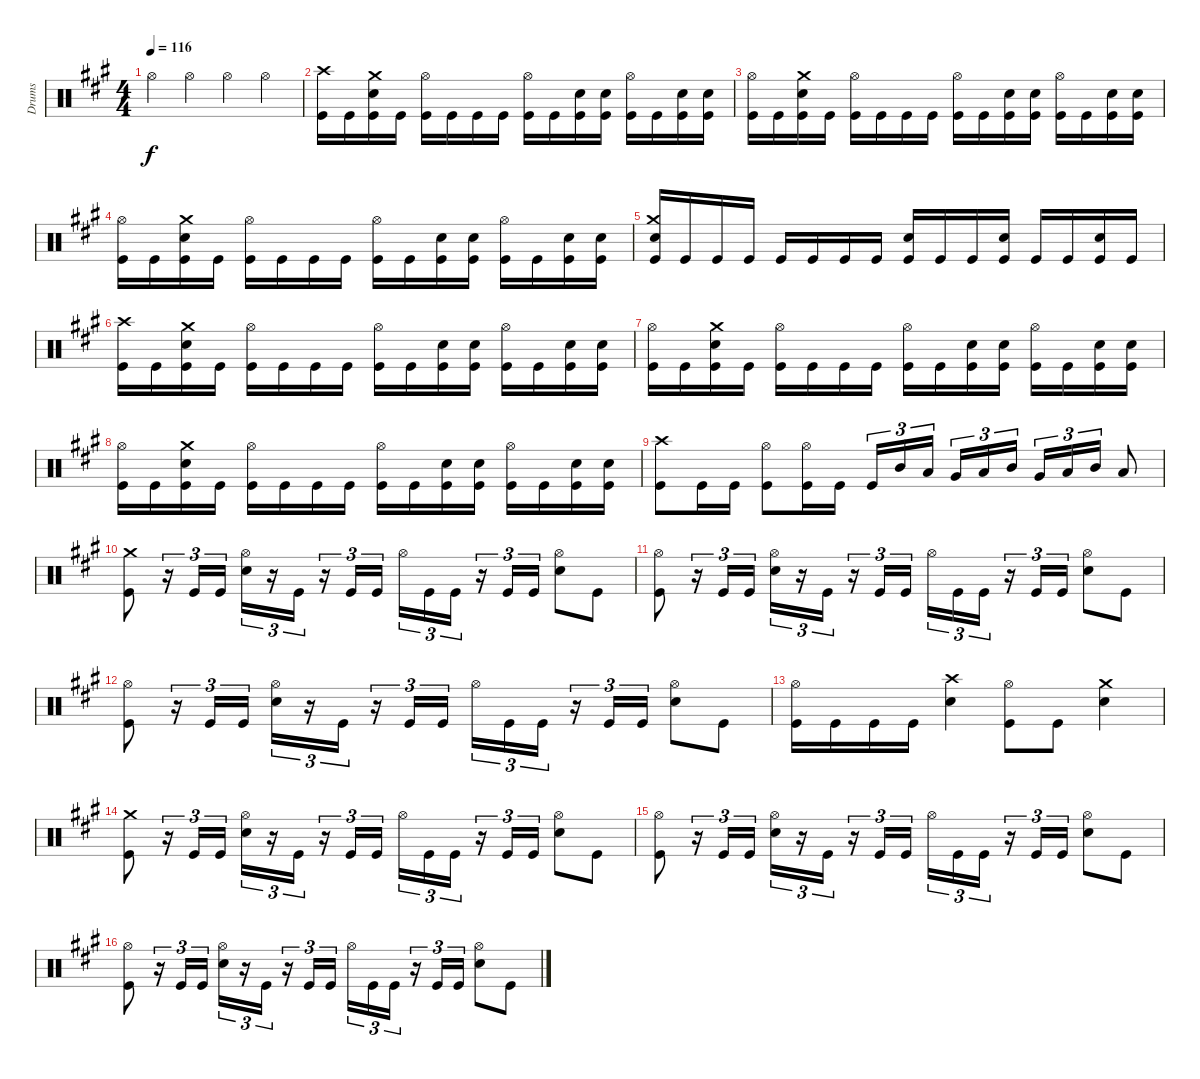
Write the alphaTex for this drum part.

\track ("Drums" "Drums") {instrument percussion}
\staff {score}
\articulation defaults
\ts (4 4)
\tempo 116
\clef neutral
\ks a "Hi-Hat (open)".4{dy f} "Hi-Hat (open)".4 "Hi-Hat (open)".4 "Hi-Hat (open)".4
|
("Crash high (hit)" "Kick (hit)").16 "Kick (hit)".16 ("Crash medium (hit)" "Snare (hit) 2" "Kick (hit)").16 "Kick (hit)".16 ("Hi-Hat (open)" "Kick (hit)").16 "Kick (hit)".16 "Kick (hit)".16 "Kick (hit)".16 ("Hi-Hat (open)" "Kick (hit)").16 "Kick (hit)".16 ("Snare (hit) 2" "Kick (hit)").16 ("Snare (hit) 2" "Kick (hit)").16 ("Hi-Hat (open)" "Kick (hit)").16 "Kick (hit)".16 ("Snare (hit) 2" "Kick (hit)").16 ("Snare (hit) 2" "Kick (hit)").16 |
("Hi-Hat (open)" "Kick (hit)").16 "Kick (hit)".16 ("Crash medium (hit)" "Snare (hit) 2" "Kick (hit)").16 "Kick (hit)".16 ("Hi-Hat (open)" "Kick (hit)").16 "Kick (hit)".16 "Kick (hit)".16 "Kick (hit)".16 ("Hi-Hat (open)" "Kick (hit)").16 "Kick (hit)".16 ("Snare (hit) 2" "Kick (hit)").16 ("Snare (hit) 2" "Kick (hit)").16 ("Hi-Hat (open)" "Kick (hit)").16 "Kick (hit)".16 ("Snare (hit) 2" "Kick (hit)").16 ("Snare (hit) 2" "Kick (hit)").16 |
("Hi-Hat (open)" "Kick (hit)").16 "Kick (hit)".16 ("Crash medium (hit)" "Snare (hit) 2" "Kick (hit)").16 "Kick (hit)".16 ("Hi-Hat (open)" "Kick (hit)").16 "Kick (hit)".16 "Kick (hit)".16 "Kick (hit)".16 ("Hi-Hat (open)" "Kick (hit)").16 "Kick (hit)".16 ("Snare (hit) 2" "Kick (hit)").16 ("Snare (hit) 2" "Kick (hit)").16 ("Hi-Hat (open)" "Kick (hit)").16 "Kick (hit)".16 ("Snare (hit) 2" "Kick (hit)").16 ("Snare (hit) 2" "Kick (hit)").16 |
("Crash medium (hit)" "Snare (hit) 2" "Kick (hit)").16 "Kick (hit)".16 "Kick (hit)".16 "Kick (hit)".16 "Kick (hit)".16 "Kick (hit)".16 "Kick (hit)".16 "Kick (hit)".16 ("Snare (hit) 2" "Kick (hit)").16 "Kick (hit)".16 "Kick (hit)".16 ("Snare (hit) 2" "Kick (hit)").16 "Kick (hit)".16 "Kick (hit)".16 ("Snare (hit) 2" "Kick (hit)").16 "Kick (hit)".16 |
("Crash high (hit)" "Kick (hit)").16 "Kick (hit)".16 ("Crash medium (hit)" "Snare (hit) 2" "Kick (hit)").16 "Kick (hit)".16 ("Hi-Hat (open)" "Kick (hit)").16 "Kick (hit)".16 "Kick (hit)".16 "Kick (hit)".16 ("Hi-Hat (open)" "Kick (hit)").16 "Kick (hit)".16 ("Snare (hit) 2" "Kick (hit)").16 ("Snare (hit) 2" "Kick (hit)").16 ("Hi-Hat (open)" "Kick (hit)").16 "Kick (hit)".16 ("Snare (hit) 2" "Kick (hit)").16 ("Snare (hit) 2" "Kick (hit)").16 |
("Hi-Hat (open)" "Kick (hit)").16 "Kick (hit)".16 ("Crash medium (hit)" "Snare (hit) 2" "Kick (hit)").16 "Kick (hit)".16 ("Hi-Hat (open)" "Kick (hit)").16 "Kick (hit)".16 "Kick (hit)".16 "Kick (hit)".16 ("Hi-Hat (open)" "Kick (hit)").16 "Kick (hit)".16 ("Snare (hit) 2" "Kick (hit)").16 ("Snare (hit) 2" "Kick (hit)").16 ("Hi-Hat (open)" "Kick (hit)").16 "Kick (hit)".16 ("Snare (hit) 2" "Kick (hit)").16 ("Snare (hit) 2" "Kick (hit)").16 |
("Hi-Hat (open)" "Kick (hit)").16 "Kick (hit)".16 ("Crash medium (hit)" "Snare (hit) 2" "Kick (hit)").16 "Kick (hit)".16 ("Hi-Hat (open)" "Kick (hit)").16 "Kick (hit)".16 "Kick (hit)".16 "Kick (hit)".16 ("Hi-Hat (open)" "Kick (hit)").16 "Kick (hit)".16 ("Snare (hit) 2" "Kick (hit)").16 ("Snare (hit) 2" "Kick (hit)").16 ("Hi-Hat (open)" "Kick (hit)").16 "Kick (hit)".16 ("Snare (hit) 2" "Kick (hit)").16 ("Snare (hit) 2" "Kick (hit)").16 |
("Crash high (hit)" "Kick (hit)").8 "Kick (hit)".16 "Kick (hit)".16 ("Hi-Hat (open)" "Kick (hit)").8 ("Hi-Hat (open)" "Kick (hit)").16 "Kick (hit)".16 "Kick (hit)".16{tu (3 2)} "Mid Tom (hit)".16{tu (3 2)} "Low Tom (hit)".16{tu (3 2) beam splitsecondary} "Very Low Tom (hit)".16{tu (3 2)} "Low Tom (hit)".16{tu (3 2)} "Mid Tom (hit)".16{tu (3 2)} "Very Low Tom (hit)".16{tu (3 2)} "Low Tom (hit)".16{tu (3 2)} "Mid Tom (hit)".16{tu (3 2)} "Low Tom (hit)".8 |
("Crash medium (hit)" "Kick (hit)").8 r.16{tu (3 2)} "Kick (hit)".16{tu (3 2)} "Kick (hit)".16{tu (3 2)} ("Hi-Hat (open)" "Snare (hit) 2").16{tu (3 2)} r.16{tu (3 2)} "Kick (hit)".16{tu (3 2)} r.16{tu (3 2)} "Kick (hit)".16{tu (3 2)} "Kick (hit)".16{tu (3 2)} "Hi-Hat (open)".16{tu (3 2)} "Kick (hit)".16{tu (3 2)} "Kick (hit)".16{tu (3 2)} r.16{tu (3 2)} "Kick (hit)".16{tu (3 2)} "Kick (hit)".16{tu (3 2)} ("Hi-Hat (open)" "Snare (hit) 2").8 "Kick (hit)".8 |
("Hi-Hat (open)" "Kick (hit)").8 r.16{tu (3 2)} "Kick (hit)".16{tu (3 2)} "Kick (hit)".16{tu (3 2)} ("Hi-Hat (open)" "Snare (hit) 2").16{tu (3 2)} r.16{tu (3 2)} "Kick (hit)".16{tu (3 2)} r.16{tu (3 2)} "Kick (hit)".16{tu (3 2)} "Kick (hit)".16{tu (3 2)} "Hi-Hat (open)".16{tu (3 2)} "Kick (hit)".16{tu (3 2)} "Kick (hit)".16{tu (3 2)} r.16{tu (3 2)} "Kick (hit)".16{tu (3 2)} "Kick (hit)".16{tu (3 2)} ("Hi-Hat (open)" "Snare (hit) 2").8 "Kick (hit)".8 |
("Hi-Hat (open)" "Kick (hit)").8 r.16{tu (3 2)} "Kick (hit)".16{tu (3 2)} "Kick (hit)".16{tu (3 2)} ("Hi-Hat (open)" "Snare (hit) 2").16{tu (3 2)} r.16{tu (3 2)} "Kick (hit)".16{tu (3 2)} r.16{tu (3 2)} "Kick (hit)".16{tu (3 2)} "Kick (hit)".16{tu (3 2)} "Hi-Hat (open)".16{tu (3 2)} "Kick (hit)".16{tu (3 2)} "Kick (hit)".16{tu (3 2)} r.16{tu (3 2)} "Kick (hit)".16{tu (3 2)} "Kick (hit)".16{tu (3 2)} ("Hi-Hat (open)" "Snare (hit) 2").8 "Kick (hit)".8 |
("Hi-Hat (open)" "Kick (hit)").16 "Kick (hit)".16 "Kick (hit)".16 "Kick (hit)".16 ("Crash high (hit)" "Snare (hit) 2").4 ("Hi-Hat (open)" "Kick (hit)").8 "Kick (hit)".8 ("Crash medium (hit)" "Snare (hit) 2").4 |
("Crash medium (hit)" "Kick (hit)").8 r.16{tu (3 2)} "Kick (hit)".16{tu (3 2)} "Kick (hit)".16{tu (3 2)} ("Hi-Hat (open)" "Snare (hit) 2").16{tu (3 2)} r.16{tu (3 2)} "Kick (hit)".16{tu (3 2)} r.16{tu (3 2)} "Kick (hit)".16{tu (3 2)} "Kick (hit)".16{tu (3 2)} "Hi-Hat (open)".16{tu (3 2)} "Kick (hit)".16{tu (3 2)} "Kick (hit)".16{tu (3 2)} r.16{tu (3 2)} "Kick (hit)".16{tu (3 2)} "Kick (hit)".16{tu (3 2)} ("Hi-Hat (open)" "Snare (hit) 2").8 "Kick (hit)".8 |
("Hi-Hat (open)" "Kick (hit)").8 r.16{tu (3 2)} "Kick (hit)".16{tu (3 2)} "Kick (hit)".16{tu (3 2)} ("Hi-Hat (open)" "Snare (hit) 2").16{tu (3 2)} r.16{tu (3 2)} "Kick (hit)".16{tu (3 2)} r.16{tu (3 2)} "Kick (hit)".16{tu (3 2)} "Kick (hit)".16{tu (3 2)} "Hi-Hat (open)".16{tu (3 2)} "Kick (hit)".16{tu (3 2)} "Kick (hit)".16{tu (3 2)} r.16{tu (3 2)} "Kick (hit)".16{tu (3 2)} "Kick (hit)".16{tu (3 2)} ("Hi-Hat (open)" "Snare (hit) 2").8 "Kick (hit)".8 |
("Hi-Hat (open)" "Kick (hit)").8 r.16{tu (3 2)} "Kick (hit)".16{tu (3 2)} "Kick (hit)".16{tu (3 2)} ("Hi-Hat (open)" "Snare (hit) 2").16{tu (3 2)} r.16{tu (3 2)} "Kick (hit)".16{tu (3 2)} r.16{tu (3 2)} "Kick (hit)".16{tu (3 2)} "Kick (hit)".16{tu (3 2)} "Hi-Hat (open)".16{tu (3 2)} "Kick (hit)".16{tu (3 2)} "Kick (hit)".16{tu (3 2)} r.16{tu (3 2)} "Kick (hit)".16{tu (3 2)} "Kick (hit)".16{tu (3 2)} ("Hi-Hat (open)" "Snare (hit) 2").8 "Kick (hit)".8
